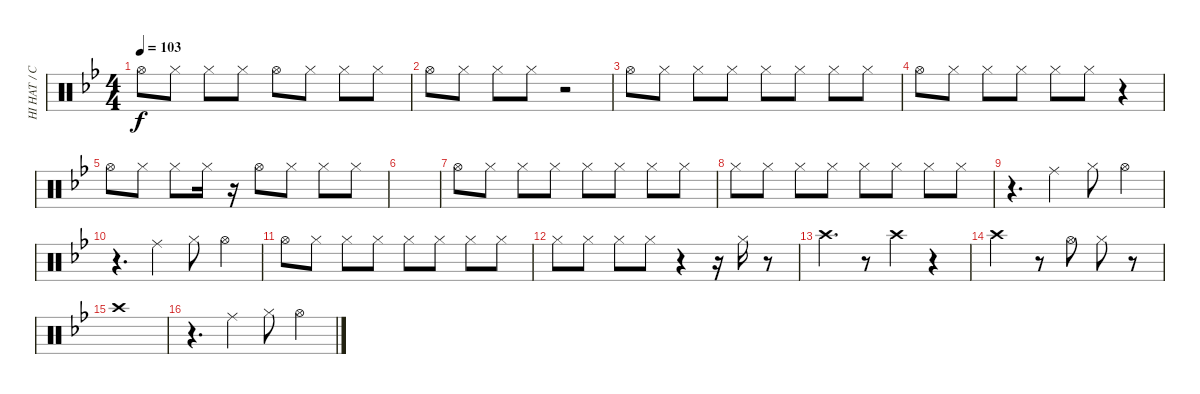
\track ("HI HAT / CYMBALS" "HI HAT / C") {instrument percussion}
\staff {score}
\articulation defaults
\ts (4 4)
\tempo 103
\clef neutral
\ks bb "Hi-Hat (open)".8{dy f} "Hi-Hat (closed)".8 "Hi-Hat (closed)".8 "Hi-Hat (closed)".8 "Hi-Hat (open)".8 "Hi-Hat (closed)".8 "Hi-Hat (closed)".8 "Hi-Hat (closed)".8
|
"Hi-Hat (open)".8 "Hi-Hat (closed)".8 "Hi-Hat (closed)".8 "Hi-Hat (closed)".8 r.2 |
"Hi-Hat (open)".8 "Hi-Hat (closed)".8 "Hi-Hat (closed)".8 "Hi-Hat (closed)".8 "Hi-Hat (closed)".8 "Hi-Hat (closed)".8 "Hi-Hat (closed)".8 "Hi-Hat (closed)".8 |
"Hi-Hat (open)".8 "Hi-Hat (closed)".8 "Hi-Hat (closed)".8 "Hi-Hat (closed)".8 "Hi-Hat (closed)".8 "Hi-Hat (closed)".8 r.4 |
"Hi-Hat (open)".8 "Hi-Hat (closed)".8 "Hi-Hat (closed)".8 "Hi-Hat (closed)".16 r.16 "Hi-Hat (open)".8 "Hi-Hat (closed)".8 "Hi-Hat (closed)".8 "Hi-Hat (closed)".8 |
|
"Hi-Hat (open)".8 "Hi-Hat (closed)".8 "Hi-Hat (closed)".8 "Hi-Hat (closed)".8 "Hi-Hat (closed)".8 "Hi-Hat (closed)".8 "Hi-Hat (closed)".8 "Hi-Hat (closed)".8 |
"Hi-Hat (closed)".8 "Hi-Hat (closed)".8 "Hi-Hat (closed)".8 "Hi-Hat (closed)".8 "Hi-Hat (closed)".8 "Hi-Hat (closed)".8 "Hi-Hat (closed)".8 "Hi-Hat (closed)".8 |
r.4{d} "Ride (middle)".4 "Hi-Hat (closed)".8 "Hi-Hat (open)".4 |
r.4{d} "Ride (middle)".4 "Hi-Hat (closed)".8 "Hi-Hat (open)".4 |
"Hi-Hat (open)".8 "Hi-Hat (closed)".8 "Hi-Hat (closed)".8 "Hi-Hat (closed)".8 "Hi-Hat (closed)".8 "Hi-Hat (closed)".8 "Hi-Hat (closed)".8 "Hi-Hat (closed)".8 |
"Hi-Hat (closed)".8 "Hi-Hat (closed)".8 "Hi-Hat (closed)".8 "Hi-Hat (closed)".8 r.4 r.16 "Hi-Hat (closed)".16 r.8 |
"Crash high (hit)".4{d} r.8 "Crash high (hit)".4 r.4 |
"Crash high (hit)".2 r.8 "Hi-Hat (open)".8 "Hi-Hat (closed)".8 r.8 |
"Crash high (hit)".1 |
r.4{d} "Ride (middle)".4 "Hi-Hat (closed)".8 "Hi-Hat (open)".4
